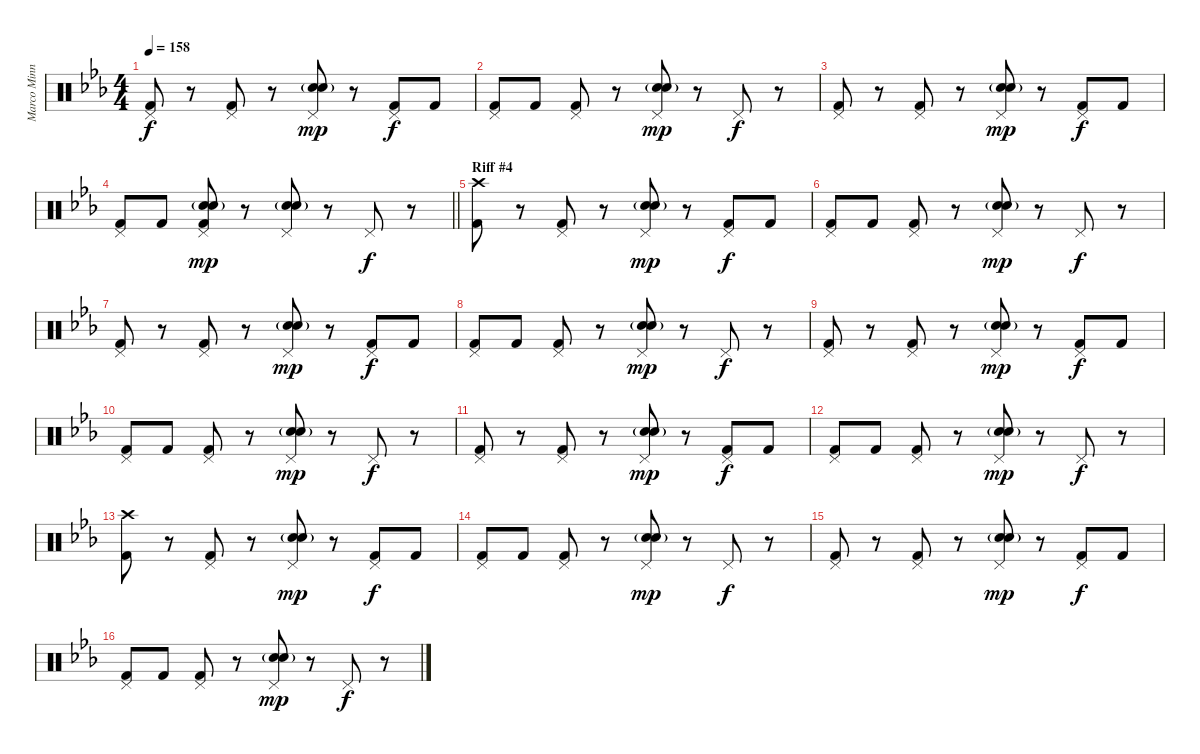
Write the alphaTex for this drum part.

\track ("Marco Minnemann (Drums)" "Marco Minn") {instrument percussion}
\staff {score}
\articulation defaults
\ts (4 4)
\tempo 158
\clef neutral
\ks eb
("Pedal Hi-Hat (hit)" "Kick (hit) 2").8{dy f} r.8 ("Pedal Hi-Hat (hit)" "Kick (hit) 2").8 r.8 ("Pedal Hi-Hat (hit)" "Snare (hit) 2"{g} "Electric Snare (hit)").8{dy mp} r.8 ("Pedal Hi-Hat (hit)" "Kick (hit) 2").8{dy f} "Kick (hit) 2".8 |
("Pedal Hi-Hat (hit)" "Kick (hit) 2").8 "Kick (hit) 2".8 ("Pedal Hi-Hat (hit)" "Kick (hit) 2").8 r.8 ("Pedal Hi-Hat (hit)" "Snare (hit) 2"{g} "Electric Snare (hit)").8{dy mp} r.8 "Pedal Hi-Hat (hit)".8{dy f} r.8 |
("Pedal Hi-Hat (hit)" "Kick (hit) 2").8 r.8 ("Pedal Hi-Hat (hit)" "Kick (hit) 2").8 r.8 ("Pedal Hi-Hat (hit)" "Snare (hit) 2"{g} "Electric Snare (hit)").8{dy mp} r.8 ("Pedal Hi-Hat (hit)" "Kick (hit) 2").8{dy f} "Kick (hit) 2".8 |
\barLineRight lightlight
("Pedal Hi-Hat (hit)" "Kick (hit) 2").8 "Kick (hit) 2".8 ("Pedal Hi-Hat (hit)" "Snare (hit) 2"{g} "Electric Snare (hit)" "Kick (hit) 2").8{dy mp} r.8 ("Pedal Hi-Hat (hit)" "Snare (hit) 2"{g} "Electric Snare (hit)").8 r.8 "Pedal Hi-Hat (hit)".8{dy f} r.8 |
\section ("" "Riff #4")
("Crash high (hit)" "Kick (hit) 2").8 r.8 ("Pedal Hi-Hat (hit)" "Kick (hit) 2").8 r.8 ("Pedal Hi-Hat (hit)" "Snare (hit) 2"{g} "Electric Snare (hit)").8{dy mp} r.8 ("Pedal Hi-Hat (hit)" "Kick (hit) 2").8{dy f} "Kick (hit) 2".8 |
("Pedal Hi-Hat (hit)" "Kick (hit) 2").8 "Kick (hit) 2".8 ("Pedal Hi-Hat (hit)" "Kick (hit) 2").8 r.8 ("Pedal Hi-Hat (hit)" "Snare (hit) 2"{g} "Electric Snare (hit)").8{dy mp} r.8 "Pedal Hi-Hat (hit)".8{dy f} r.8 |
("Pedal Hi-Hat (hit)" "Kick (hit) 2").8 r.8 ("Pedal Hi-Hat (hit)" "Kick (hit) 2").8 r.8 ("Pedal Hi-Hat (hit)" "Snare (hit) 2"{g} "Electric Snare (hit)").8{dy mp} r.8 ("Pedal Hi-Hat (hit)" "Kick (hit) 2").8{dy f} "Kick (hit) 2".8 |
("Pedal Hi-Hat (hit)" "Kick (hit) 2").8 "Kick (hit) 2".8 ("Pedal Hi-Hat (hit)" "Kick (hit) 2").8 r.8 ("Pedal Hi-Hat (hit)" "Snare (hit) 2"{g} "Electric Snare (hit)").8{dy mp} r.8 "Pedal Hi-Hat (hit)".8{dy f} r.8 |
("Pedal Hi-Hat (hit)" "Kick (hit) 2").8 r.8 ("Pedal Hi-Hat (hit)" "Kick (hit) 2").8 r.8 ("Pedal Hi-Hat (hit)" "Snare (hit) 2"{g} "Electric Snare (hit)").8{dy mp} r.8 ("Pedal Hi-Hat (hit)" "Kick (hit) 2").8{dy f} "Kick (hit) 2".8 |
("Pedal Hi-Hat (hit)" "Kick (hit) 2").8 "Kick (hit) 2".8 ("Pedal Hi-Hat (hit)" "Kick (hit) 2").8 r.8 ("Pedal Hi-Hat (hit)" "Snare (hit) 2"{g} "Electric Snare (hit)").8{dy mp} r.8 "Pedal Hi-Hat (hit)".8{dy f} r.8 |
("Pedal Hi-Hat (hit)" "Kick (hit) 2").8 r.8 ("Pedal Hi-Hat (hit)" "Kick (hit) 2").8 r.8 ("Pedal Hi-Hat (hit)" "Snare (hit) 2"{g} "Electric Snare (hit)").8{dy mp} r.8 ("Pedal Hi-Hat (hit)" "Kick (hit) 2").8{dy f} "Kick (hit) 2".8 |
("Pedal Hi-Hat (hit)" "Kick (hit) 2").8 "Kick (hit) 2".8 ("Pedal Hi-Hat (hit)" "Kick (hit) 2").8 r.8 ("Pedal Hi-Hat (hit)" "Snare (hit) 2"{g} "Electric Snare (hit)").8{dy mp} r.8 "Pedal Hi-Hat (hit)".8{dy f} r.8 |
("Crash high (hit)" "Kick (hit) 2").8 r.8 ("Pedal Hi-Hat (hit)" "Kick (hit) 2").8 r.8 ("Pedal Hi-Hat (hit)" "Snare (hit) 2"{g} "Electric Snare (hit)").8{dy mp} r.8 ("Pedal Hi-Hat (hit)" "Kick (hit) 2").8{dy f} "Kick (hit) 2".8 |
("Pedal Hi-Hat (hit)" "Kick (hit) 2").8 "Kick (hit) 2".8 ("Pedal Hi-Hat (hit)" "Kick (hit) 2").8 r.8 ("Pedal Hi-Hat (hit)" "Snare (hit) 2"{g} "Electric Snare (hit)").8{dy mp} r.8 "Pedal Hi-Hat (hit)".8{dy f} r.8 |
("Pedal Hi-Hat (hit)" "Kick (hit) 2").8 r.8 ("Pedal Hi-Hat (hit)" "Kick (hit) 2").8 r.8 ("Pedal Hi-Hat (hit)" "Snare (hit) 2"{g} "Electric Snare (hit)").8{dy mp} r.8 ("Pedal Hi-Hat (hit)" "Kick (hit) 2").8{dy f} "Kick (hit) 2".8 |
("Pedal Hi-Hat (hit)" "Kick (hit) 2").8 "Kick (hit) 2".8 ("Pedal Hi-Hat (hit)" "Kick (hit) 2").8 r.8 ("Pedal Hi-Hat (hit)" "Snare (hit) 2"{g} "Electric Snare (hit)").8{dy mp} r.8 "Pedal Hi-Hat (hit)".8{dy f} r.8
